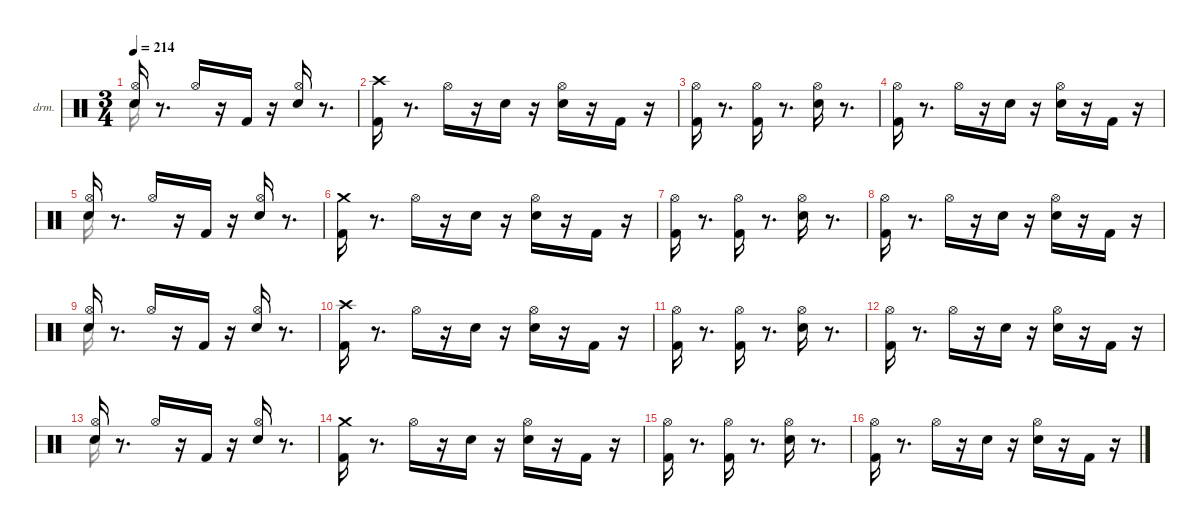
\hideDynamics
\bracketExtendMode nobrackets
\firstSystemTrackNameOrientation horizontal
\otherSystemsTrackNameOrientation horizontal
\track ("EZdrummer 3" "drm.") {instrument percussion}
\staff {score}
\articulation defaults
\voice
\ts (3 4)
\tempo 214
\clef neutral
\ks aminor
("Snare (hit) 2" "Hi-Hat (open)"{acc #}).16{dy pp beam Up} r.8{d beam Up} "Hi-Hat (open)"{acc #}.16{dy f beam Up} r.16{beam Up} "Kick (hit) 2".16{dy mp beam Up} r.16{beam Up} ("Snare (hit) 2" "Hi-Hat (open)"{acc #}).16{dy ff beam Up} r.8{d beam Up} |
("Kick (hit) 2" "Crash high (hit)"{acc #}).16{beam Down} r.8{d beam Down} "Hi-Hat (open)"{acc #}.16{dy mf beam Down} r.16{beam Down} "Snare (hit) 2".16{dy f beam Down} r.16{beam Down} ("Snare (hit) 2" "Hi-Hat (open)"{acc #}).16{beam Down} r.16{beam Down} "Kick (hit) 2".16{dy mp beam Up} r.16{beam Up} |
("Kick (hit) 2" "Hi-Hat (open)"{acc #}).16{dy f beam Down} r.8{d beam Down} ("Kick (hit) 2" "Hi-Hat (open)"{acc #}).16{dy mf beam Down} r.8{d beam Down} ("Snare (hit) 2" "Hi-Hat (open)"{acc #}).16{dy f beam Down} r.8{d beam Down} |
("Kick (hit) 2" "Hi-Hat (open)"{acc #}).16{dy mf beam Down} r.8{d beam Down} "Hi-Hat (open)"{acc #}.16{dy mp beam Down} r.16{beam Down} "Snare (hit) 2".16{dy f beam Down} r.16{beam Down} ("Snare (hit) 2" "Hi-Hat (open)"{acc #}).16{dy p beam Down} r.16{beam Down} "Kick (hit) 2".16{dy mf beam Up} r.16{beam Up} |
("Snare (hit) 2" "Hi-Hat (open)"{acc #}).16{dy pp beam Up} r.8{d beam Up} "Hi-Hat (open)"{acc #}.16{dy f beam Up} r.16{beam Up} "Kick (hit) 2".16{dy mp beam Up} r.16{beam Up} ("Snare (hit) 2" "Hi-Hat (open)"{acc #}).16{beam Up} r.8{d beam Up} |
("Kick (hit) 2" "Crash medium (hit)").16{dy ff beam Down} r.8{d beam Down} "Hi-Hat (open)"{acc #}.16{dy mf beam Down} r.16{beam Down} "Snare (hit) 2".16{dy f beam Down} r.16{beam Down} ("Snare (hit) 2" "Hi-Hat (open)"{acc #}).16{dy p beam Down} r.16{beam Down} "Kick (hit) 2".16{dy mp beam Up} r.16{beam Up} |
("Kick (hit) 2" "Hi-Hat (open)"{acc #}).16{dy f beam Down} r.8{d beam Down} ("Kick (hit) 2" "Hi-Hat (open)"{acc #}).16{dy mf beam Down} r.8{d beam Down} ("Snare (hit) 2" "Hi-Hat (open)"{acc #}).16{dy f beam Down} r.8{d beam Down} |
("Kick (hit) 2" "Hi-Hat (open)"{acc #}).16{dy mf beam Down} r.8{d beam Down} "Hi-Hat (open)"{acc #}.16{dy mp beam Down} r.16{beam Down} "Snare (hit) 2".16{dy f beam Down} r.16{beam Down} ("Snare (hit) 2" "Hi-Hat (open)"{acc #}).16{dy p beam Down} r.16{beam Down} "Kick (hit) 2".16{dy mf beam Up} r.16{beam Up} |
("Snare (hit) 2" "Hi-Hat (open)"{acc #}).16{dy pp beam Up} r.8{d beam Up} "Hi-Hat (open)"{acc #}.16{dy f beam Up} r.16{beam Up} "Kick (hit) 2".16{dy mp beam Up} r.16{beam Up} ("Snare (hit) 2" "Hi-Hat (open)"{acc #}).16{dy ff beam Up} r.8{d beam Up} |
("Kick (hit) 2" "Crash high (hit)"{acc #}).16{dy fff beam Down} r.8{d beam Down} "Hi-Hat (open)"{acc #}.16{dy mf beam Down} r.16{beam Down} "Snare (hit) 2".16{dy f beam Down} r.16{beam Down} ("Snare (hit) 2" "Hi-Hat (open)"{acc #}).16{dy p beam Down} r.16{beam Down} "Kick (hit) 2".16{dy mp beam Up} r.16{beam Up} |
("Kick (hit) 2" "Hi-Hat (open)"{acc #}).16{dy f beam Down} r.8{d beam Down} ("Kick (hit) 2" "Hi-Hat (open)"{acc #}).16{dy mf beam Down} r.8{d beam Down} ("Snare (hit) 2" "Hi-Hat (open)"{acc #}).16{dy mp beam Down} r.8{d beam Down} |
("Kick (hit) 2" "Hi-Hat (open)"{acc #}).16{dy ff beam Down} r.8{d beam Down} "Hi-Hat (open)"{acc #}.16{dy mp beam Down} r.16{beam Down} "Snare (hit) 2".16{dy f beam Down} r.16{beam Down} ("Snare (hit) 2" "Hi-Hat (open)"{acc #}).16{dy p beam Down} r.16{beam Down} "Kick (hit) 2".16{dy mf beam Up} r.16{beam Up} |
("Snare (hit) 2" "Hi-Hat (open)"{acc #}).16{dy pp beam Up} r.8{d beam Up} "Hi-Hat (open)"{acc #}.16{dy f beam Up} r.16{beam Up} "Kick (hit) 2".16{dy mp beam Up} r.16{beam Up} ("Snare (hit) 2" "Hi-Hat (open)"{acc #}).16{dy ff beam Up} r.8{d beam Up} |
("Kick (hit) 2" "Crash medium (hit)").16{beam Down} r.8{d beam Down} "Hi-Hat (open)"{acc #}.16{dy mf beam Down} r.16{beam Down} "Snare (hit) 2".16{dy f beam Down} r.16{beam Down} ("Snare (hit) 2" "Hi-Hat (open)"{acc #}).16{dy p beam Down} r.16{beam Down} "Kick (hit) 2".16{dy mp beam Up} r.16{beam Up} |
("Kick (hit) 2" "Hi-Hat (open)"{acc #}).16{beam Down} r.8{d beam Down} ("Kick (hit) 2" "Hi-Hat (open)"{acc #}).16{dy f beam Down} r.8{d beam Down} ("Snare (hit) 2" "Hi-Hat (open)"{acc #}).16{dy mp beam Down} r.8{d beam Down} |
("Kick (hit) 2" "Hi-Hat (open)"{acc #}).16{dy mf beam Down} r.8{d beam Down} "Hi-Hat (open)"{acc #}.16{dy mp beam Down} r.16{beam Down} "Snare (hit) 2".16{dy f beam Down} r.16{beam Down} ("Snare (hit) 2" "Hi-Hat (open)"{acc #}).16{dy p beam Down} r.16{beam Down} "Kick (hit) 2".16{dy mf beam Up} r.16{beam Up}
\voice
\clef neutral
\ottava regular
\simile none
\ks aminor "Snare (hit) 2".16{dy ff beam Down}
|
|
|
|
"Snare (hit) 2".16{beam Down} |
|
|
|
"Snare (hit) 2".16{beam Down} |
|
|
|
"Snare (hit) 2".16{beam Down} |
|
|
